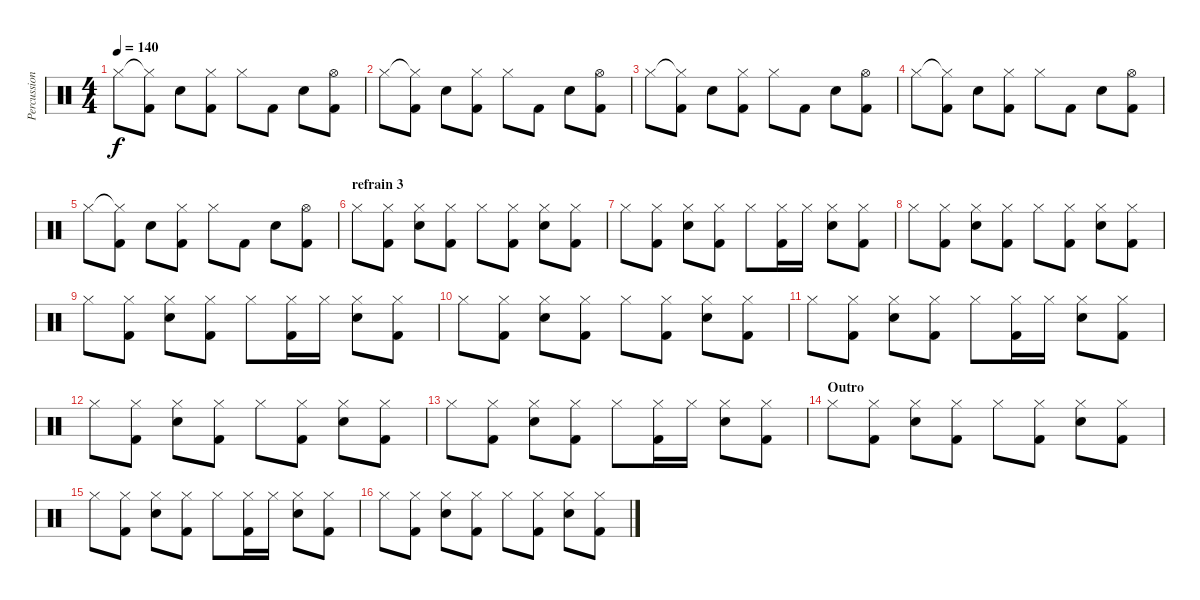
\track ("Percussions" "Percussion") {instrument percussion}
\staff {score}
\articulation defaults
\ts (4 4)
\tempo 140
\clef neutral
\ks c "Hi-Hat (closed)".8{dy f}
("Hi-Hat (closed)"{t} "Kick (hit) 2").8 "Snare (hit) 2".8 ("Hi-Hat (closed)" "Kick (hit) 2").8 "Hi-Hat (closed)".8 "Kick (hit) 2".8 "Snare (hit) 2".8 ("Hi-Hat (open)" "Kick (hit) 2").8 |
"Hi-Hat (closed)".8 ("Hi-Hat (closed)"{t} "Kick (hit) 2").8 "Snare (hit) 2".8 ("Hi-Hat (closed)" "Kick (hit) 2").8 "Hi-Hat (closed)".8 "Kick (hit) 2".8 "Snare (hit) 2".8 ("Hi-Hat (open)" "Kick (hit) 2").8 |
"Hi-Hat (closed)".8 ("Hi-Hat (closed)"{t} "Kick (hit) 2").8 "Snare (hit) 2".8 ("Hi-Hat (closed)" "Kick (hit) 2").8 "Hi-Hat (closed)".8 "Kick (hit) 2".8 "Snare (hit) 2".8 ("Hi-Hat (open)" "Kick (hit) 2").8 |
"Hi-Hat (closed)".8 ("Hi-Hat (closed)"{t} "Kick (hit) 2").8 "Snare (hit) 2".8 ("Hi-Hat (closed)" "Kick (hit) 2").8 "Hi-Hat (closed)".8 "Kick (hit) 2".8 "Snare (hit) 2".8 ("Hi-Hat (open)" "Kick (hit) 2").8 |
"Hi-Hat (closed)".8 ("Hi-Hat (closed)"{t} "Kick (hit) 2").8 "Snare (hit) 2".8 ("Hi-Hat (closed)" "Kick (hit) 2").8 "Hi-Hat (closed)".8 "Kick (hit) 2".8 "Snare (hit) 2".8 ("Hi-Hat (open)" "Kick (hit) 2").8 |
\section ("" "refrain 3")
"Hi-Hat (closed)".8 ("Hi-Hat (closed)" "Kick (hit) 2").8 ("Hi-Hat (closed)" "Snare (hit) 2").8 ("Hi-Hat (closed)" "Kick (hit) 2").8 "Hi-Hat (closed)".8 ("Hi-Hat (closed)" "Kick (hit) 2").8 ("Hi-Hat (closed)" "Snare (hit) 2").8 ("Hi-Hat (closed)" "Kick (hit) 2").8 |
"Hi-Hat (closed)".8 ("Hi-Hat (closed)" "Kick (hit) 2").8 ("Hi-Hat (closed)" "Snare (hit) 2").8 ("Hi-Hat (closed)" "Kick (hit) 2").8 "Hi-Hat (closed)".8 ("Hi-Hat (closed)" "Kick (hit) 2").16 "Hi-Hat (closed)".16 ("Hi-Hat (closed)" "Snare (hit) 2").8 ("Hi-Hat (closed)" "Kick (hit) 2").8 |
"Hi-Hat (closed)".8 ("Hi-Hat (closed)" "Kick (hit) 2").8 ("Hi-Hat (closed)" "Snare (hit) 2").8 ("Hi-Hat (closed)" "Kick (hit) 2").8 "Hi-Hat (closed)".8 ("Hi-Hat (closed)" "Kick (hit) 2").8 ("Hi-Hat (closed)" "Snare (hit) 2").8 ("Hi-Hat (closed)" "Kick (hit) 2").8 |
"Hi-Hat (closed)".8 ("Hi-Hat (closed)" "Kick (hit) 2").8 ("Hi-Hat (closed)" "Snare (hit) 2").8 ("Hi-Hat (closed)" "Kick (hit) 2").8 "Hi-Hat (closed)".8 ("Hi-Hat (closed)" "Kick (hit) 2").16 "Hi-Hat (closed)".16 ("Hi-Hat (closed)" "Snare (hit) 2").8 ("Hi-Hat (closed)" "Kick (hit) 2").8 |
"Hi-Hat (closed)".8 ("Hi-Hat (closed)" "Kick (hit) 2").8 ("Hi-Hat (closed)" "Snare (hit) 2").8 ("Hi-Hat (closed)" "Kick (hit) 2").8 "Hi-Hat (closed)".8 ("Hi-Hat (closed)" "Kick (hit) 2").8 ("Hi-Hat (closed)" "Snare (hit) 2").8 ("Hi-Hat (closed)" "Kick (hit) 2").8 |
"Hi-Hat (closed)".8 ("Hi-Hat (closed)" "Kick (hit) 2").8 ("Hi-Hat (closed)" "Snare (hit) 2").8 ("Hi-Hat (closed)" "Kick (hit) 2").8 "Hi-Hat (closed)".8 ("Hi-Hat (closed)" "Kick (hit) 2").16 "Hi-Hat (closed)".16 ("Hi-Hat (closed)" "Snare (hit) 2").8 ("Hi-Hat (closed)" "Kick (hit) 2").8 |
"Hi-Hat (closed)".8 ("Hi-Hat (closed)" "Kick (hit) 2").8 ("Hi-Hat (closed)" "Snare (hit) 2").8 ("Hi-Hat (closed)" "Kick (hit) 2").8 "Hi-Hat (closed)".8 ("Hi-Hat (closed)" "Kick (hit) 2").8 ("Hi-Hat (closed)" "Snare (hit) 2").8 ("Hi-Hat (closed)" "Kick (hit) 2").8 |
"Hi-Hat (closed)".8 ("Hi-Hat (closed)" "Kick (hit) 2").8 ("Hi-Hat (closed)" "Snare (hit) 2").8 ("Hi-Hat (closed)" "Kick (hit) 2").8 "Hi-Hat (closed)".8 ("Hi-Hat (closed)" "Kick (hit) 2").16 "Hi-Hat (closed)".16 ("Hi-Hat (closed)" "Snare (hit) 2").8 ("Hi-Hat (closed)" "Kick (hit) 2").8 |
\section ("" "Outro")
"Hi-Hat (closed)".8 ("Hi-Hat (closed)" "Kick (hit) 2").8 ("Hi-Hat (closed)" "Snare (hit) 2").8 ("Hi-Hat (closed)" "Kick (hit) 2").8 "Hi-Hat (closed)".8 ("Hi-Hat (closed)" "Kick (hit) 2").8 ("Hi-Hat (closed)" "Snare (hit) 2").8 ("Hi-Hat (closed)" "Kick (hit) 2").8 |
"Hi-Hat (closed)".8 ("Hi-Hat (closed)" "Kick (hit) 2").8 ("Hi-Hat (closed)" "Snare (hit) 2").8 ("Hi-Hat (closed)" "Kick (hit) 2").8 "Hi-Hat (closed)".8 ("Hi-Hat (closed)" "Kick (hit) 2").16 "Hi-Hat (closed)".16 ("Hi-Hat (closed)" "Snare (hit) 2").8 ("Hi-Hat (closed)" "Kick (hit) 2").8 |
"Hi-Hat (closed)".8 ("Hi-Hat (closed)" "Kick (hit) 2").8 ("Hi-Hat (closed)" "Snare (hit) 2").8 ("Hi-Hat (closed)" "Kick (hit) 2").8 "Hi-Hat (closed)".8 ("Hi-Hat (closed)" "Kick (hit) 2").8 ("Hi-Hat (closed)" "Snare (hit) 2").8 ("Hi-Hat (closed)" "Kick (hit) 2").8
